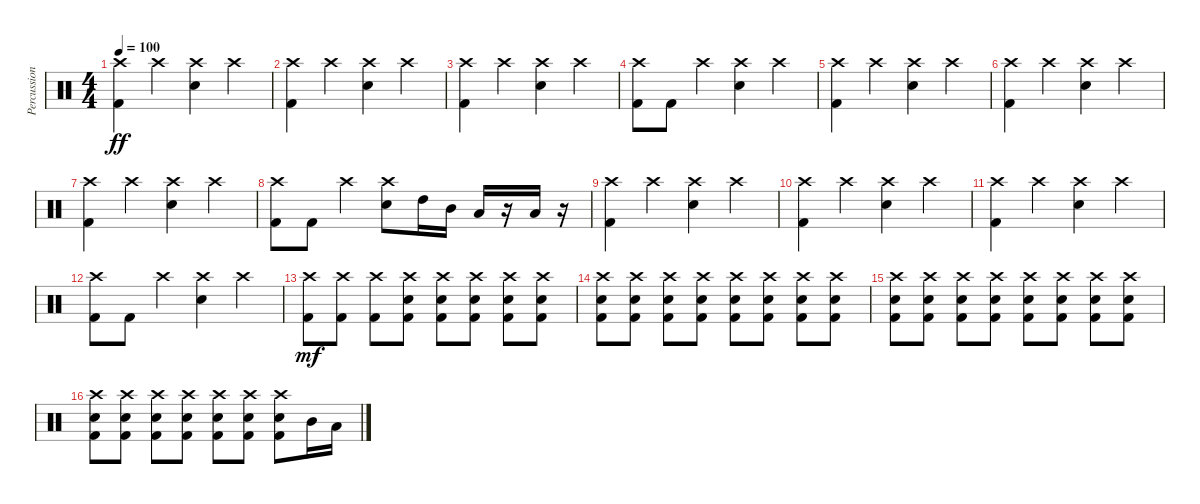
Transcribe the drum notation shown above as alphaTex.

\track ("Percussion" "Percussion") {instrument percussion}
\staff {score}
\articulation defaults
\ts (4 4)
\tempo 100
\clef neutral
\ks c
("Crash high (hit)" "Kick (hit) 2").4{dy ff} "Crash high (hit)".4 ("Crash high (hit)" "Electric Snare (hit)").4 "Crash high (hit)".4 |
("Crash high (hit)" "Kick (hit) 2").4 "Crash high (hit)".4 ("Crash high (hit)" "Electric Snare (hit)").4 "Crash high (hit)".4 |
("Crash high (hit)" "Kick (hit) 2").4 "Crash high (hit)".4 ("Crash high (hit)" "Electric Snare (hit)").4 "Crash high (hit)".4 |
("Crash high (hit)" "Kick (hit) 2").8 "Kick (hit) 2".8 "Crash high (hit)".4 ("Crash high (hit)" "Electric Snare (hit)").4 "Crash high (hit)".4 |
("Crash high (hit)" "Kick (hit) 2").4 "Crash high (hit)".4 ("Crash high (hit)" "Electric Snare (hit)").4 "Crash high (hit)".4 |
("Crash high (hit)" "Kick (hit) 2").4 "Crash high (hit)".4 ("Crash high (hit)" "Electric Snare (hit)").4 "Crash high (hit)".4 |
("Crash high (hit)" "Kick (hit) 2").4 "Crash high (hit)".4 ("Crash high (hit)" "Electric Snare (hit)").4 "Crash high (hit)".4 |
("Crash high (hit)" "Kick (hit) 2").8 "Kick (hit) 2".8 "Crash high (hit)".4 ("Crash high (hit)" "Electric Snare (hit)").8 "High Tom (hit)".16 "Mid Tom (hit)".16 "Low Tom (hit)".16 r.16 "Low Tom (hit)".16 r.16 |
("Crash high (hit)" "Kick (hit) 2").4 "Crash high (hit)".4 ("Crash high (hit)" "Electric Snare (hit)").4 "Crash high (hit)".4 |
("Crash high (hit)" "Kick (hit) 2").4 "Crash high (hit)".4 ("Crash high (hit)" "Electric Snare (hit)").4 "Crash high (hit)".4 |
("Crash high (hit)" "Kick (hit) 2").4 "Crash high (hit)".4 ("Crash high (hit)" "Electric Snare (hit)").4 "Crash high (hit)".4 |
("Crash high (hit)" "Kick (hit) 2").8 "Kick (hit) 2".8 "Crash high (hit)".4 ("Crash high (hit)" "Electric Snare (hit)").4 "Crash high (hit)".4 |
("Crash high (hit)" "Kick (hit) 2").8{dy mf} ("Crash high (hit)" "Kick (hit) 2").8 ("Crash high (hit)" "Kick (hit) 2").8 ("Crash high (hit)" "Electric Snare (hit)" "Kick (hit) 2").8 ("Crash high (hit)" "Electric Snare (hit)" "Kick (hit) 2").8 ("Crash high (hit)" "Electric Snare (hit)" "Kick (hit) 2").8 ("Crash high (hit)" "Electric Snare (hit)" "Kick (hit) 2").8 ("Crash high (hit)" "Electric Snare (hit)" "Kick (hit) 2").8 |
("Crash high (hit)" "Electric Snare (hit)" "Kick (hit) 2").8 ("Crash high (hit)" "Electric Snare (hit)" "Kick (hit) 2").8 ("Crash high (hit)" "Electric Snare (hit)" "Kick (hit) 2").8 ("Crash high (hit)" "Electric Snare (hit)" "Kick (hit) 2").8 ("Crash high (hit)" "Electric Snare (hit)" "Kick (hit) 2").8 ("Crash high (hit)" "Electric Snare (hit)" "Kick (hit) 2").8 ("Crash high (hit)" "Electric Snare (hit)" "Kick (hit) 2").8 ("Crash high (hit)" "Electric Snare (hit)" "Kick (hit) 2").8 |
("Crash high (hit)" "Electric Snare (hit)" "Kick (hit) 2").8 ("Crash high (hit)" "Electric Snare (hit)" "Kick (hit) 2").8 ("Crash high (hit)" "Electric Snare (hit)" "Kick (hit) 2").8 ("Crash high (hit)" "Electric Snare (hit)" "Kick (hit) 2").8 ("Crash high (hit)" "Electric Snare (hit)" "Kick (hit) 2").8 ("Crash high (hit)" "Electric Snare (hit)" "Kick (hit) 2").8 ("Crash high (hit)" "Electric Snare (hit)" "Kick (hit) 2").8 ("Crash high (hit)" "Electric Snare (hit)" "Kick (hit) 2").8 |
("Crash high (hit)" "Electric Snare (hit)" "Kick (hit) 2").8 ("Crash high (hit)" "Electric Snare (hit)" "Kick (hit) 2").8 ("Crash high (hit)" "Electric Snare (hit)" "Kick (hit) 2").8 ("Crash high (hit)" "Electric Snare (hit)" "Kick (hit) 2").8 ("Crash high (hit)" "Electric Snare (hit)" "Kick (hit) 2").8 ("Crash high (hit)" "Electric Snare (hit)" "Kick (hit) 2").8 ("Crash high (hit)" "Electric Snare (hit)" "Kick (hit) 2").8 "Mid Tom (hit)".16 "Low Tom (hit)".16
